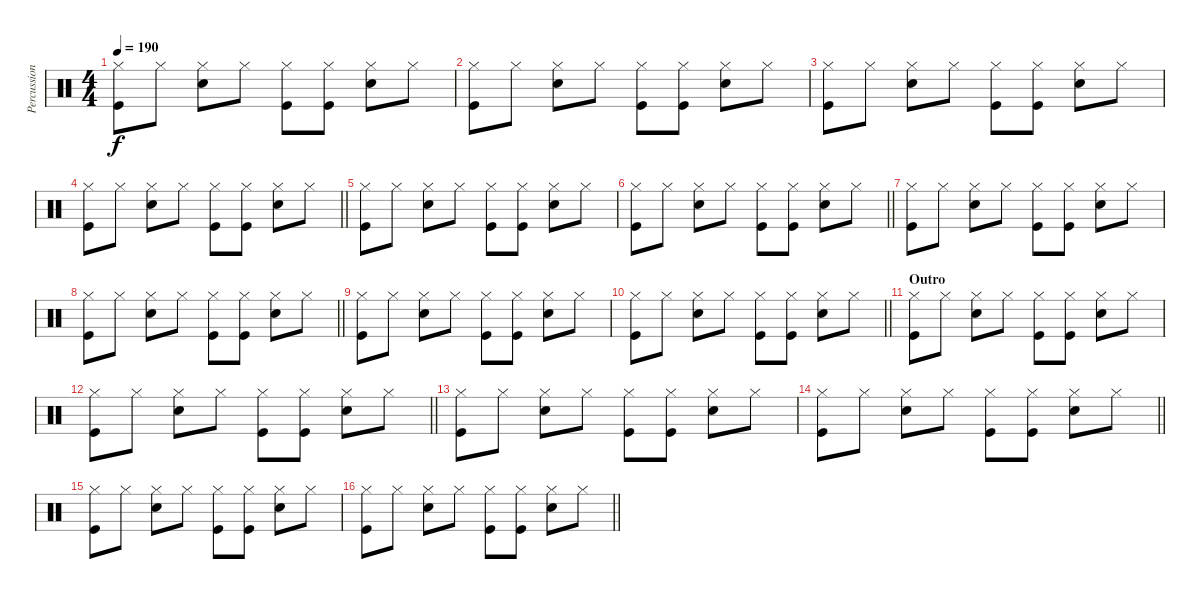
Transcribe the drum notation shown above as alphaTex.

\track ("Percussion" "Percussion") {instrument percussion}
\staff {score}
\articulation defaults
\ts (4 4)
\tempo 190
\clef neutral
\ks c
("Hi-Hat (closed)" "Kick (hit)").8{dy f} "Hi-Hat (closed)".8 ("Snare (hit) 2" "Hi-Hat (closed)").8 "Hi-Hat (closed)".8 ("Hi-Hat (closed)" "Kick (hit)").8 ("Hi-Hat (closed)" "Kick (hit)").8 ("Snare (hit) 2" "Hi-Hat (closed)").8 "Hi-Hat (closed)".8 |
("Hi-Hat (closed)" "Kick (hit)").8 "Hi-Hat (closed)".8 ("Snare (hit) 2" "Hi-Hat (closed)").8 "Hi-Hat (closed)".8 ("Hi-Hat (closed)" "Kick (hit)").8 ("Hi-Hat (closed)" "Kick (hit)").8 ("Snare (hit) 2" "Hi-Hat (closed)").8 "Hi-Hat (closed)".8 |
("Hi-Hat (closed)" "Kick (hit)").8 "Hi-Hat (closed)".8 ("Snare (hit) 2" "Hi-Hat (closed)").8 "Hi-Hat (closed)".8 ("Hi-Hat (closed)" "Kick (hit)").8 ("Hi-Hat (closed)" "Kick (hit)").8 ("Snare (hit) 2" "Hi-Hat (closed)").8 "Hi-Hat (closed)".8 |
\barLineRight lightlight
("Hi-Hat (closed)" "Kick (hit)").8 "Hi-Hat (closed)".8 ("Snare (hit) 2" "Hi-Hat (closed)").8 "Hi-Hat (closed)".8 ("Hi-Hat (closed)" "Kick (hit)").8 ("Hi-Hat (closed)" "Kick (hit)").8 ("Snare (hit) 2" "Hi-Hat (closed)").8 "Hi-Hat (closed)".8 |
("Hi-Hat (closed)" "Kick (hit)").8 "Hi-Hat (closed)".8 ("Snare (hit) 2" "Hi-Hat (closed)").8 "Hi-Hat (closed)".8 ("Hi-Hat (closed)" "Kick (hit)").8 ("Hi-Hat (closed)" "Kick (hit)").8 ("Snare (hit) 2" "Hi-Hat (closed)").8 "Hi-Hat (closed)".8 |
\barLineRight lightlight
("Hi-Hat (closed)" "Kick (hit)").8 "Hi-Hat (closed)".8 ("Snare (hit) 2" "Hi-Hat (closed)").8 "Hi-Hat (closed)".8 ("Hi-Hat (closed)" "Kick (hit)").8 ("Hi-Hat (closed)" "Kick (hit)").8 ("Snare (hit) 2" "Hi-Hat (closed)").8 "Hi-Hat (closed)".8 |
("Hi-Hat (closed)" "Kick (hit)").8 "Hi-Hat (closed)".8 ("Snare (hit) 2" "Hi-Hat (closed)").8 "Hi-Hat (closed)".8 ("Hi-Hat (closed)" "Kick (hit)").8 ("Hi-Hat (closed)" "Kick (hit)").8 ("Snare (hit) 2" "Hi-Hat (closed)").8 "Hi-Hat (closed)".8 |
\barLineRight lightlight
("Hi-Hat (closed)" "Kick (hit)").8 "Hi-Hat (closed)".8 ("Snare (hit) 2" "Hi-Hat (closed)").8 "Hi-Hat (closed)".8 ("Hi-Hat (closed)" "Kick (hit)").8 ("Hi-Hat (closed)" "Kick (hit)").8 ("Snare (hit) 2" "Hi-Hat (closed)").8 "Hi-Hat (closed)".8 |
("Hi-Hat (closed)" "Kick (hit)").8 "Hi-Hat (closed)".8 ("Snare (hit) 2" "Hi-Hat (closed)").8 "Hi-Hat (closed)".8 ("Hi-Hat (closed)" "Kick (hit)").8 ("Hi-Hat (closed)" "Kick (hit)").8 ("Snare (hit) 2" "Hi-Hat (closed)").8 "Hi-Hat (closed)".8 |
\barLineRight lightlight
("Hi-Hat (closed)" "Kick (hit)").8 "Hi-Hat (closed)".8 ("Snare (hit) 2" "Hi-Hat (closed)").8 "Hi-Hat (closed)".8 ("Hi-Hat (closed)" "Kick (hit)").8 ("Hi-Hat (closed)" "Kick (hit)").8 ("Snare (hit) 2" "Hi-Hat (closed)").8 "Hi-Hat (closed)".8 |
\section ("" "Outro")
("Hi-Hat (closed)" "Kick (hit)").8 "Hi-Hat (closed)".8 ("Snare (hit) 2" "Hi-Hat (closed)").8 "Hi-Hat (closed)".8 ("Hi-Hat (closed)" "Kick (hit)").8 ("Hi-Hat (closed)" "Kick (hit)").8 ("Snare (hit) 2" "Hi-Hat (closed)").8 "Hi-Hat (closed)".8 |
\barLineRight lightlight
("Hi-Hat (closed)" "Kick (hit)").8 "Hi-Hat (closed)".8 ("Snare (hit) 2" "Hi-Hat (closed)").8 "Hi-Hat (closed)".8 ("Hi-Hat (closed)" "Kick (hit)").8 ("Hi-Hat (closed)" "Kick (hit)").8 ("Snare (hit) 2" "Hi-Hat (closed)").8 "Hi-Hat (closed)".8 |
("Hi-Hat (closed)" "Kick (hit)").8 "Hi-Hat (closed)".8 ("Snare (hit) 2" "Hi-Hat (closed)").8 "Hi-Hat (closed)".8 ("Hi-Hat (closed)" "Kick (hit)").8 ("Hi-Hat (closed)" "Kick (hit)").8 ("Snare (hit) 2" "Hi-Hat (closed)").8 "Hi-Hat (closed)".8 |
\barLineRight lightlight
("Hi-Hat (closed)" "Kick (hit)").8 "Hi-Hat (closed)".8 ("Snare (hit) 2" "Hi-Hat (closed)").8 "Hi-Hat (closed)".8 ("Hi-Hat (closed)" "Kick (hit)").8 ("Hi-Hat (closed)" "Kick (hit)").8 ("Snare (hit) 2" "Hi-Hat (closed)").8 "Hi-Hat (closed)".8 |
("Hi-Hat (closed)" "Kick (hit)").8 "Hi-Hat (closed)".8 ("Snare (hit) 2" "Hi-Hat (closed)").8 "Hi-Hat (closed)".8 ("Hi-Hat (closed)" "Kick (hit)").8 ("Hi-Hat (closed)" "Kick (hit)").8 ("Snare (hit) 2" "Hi-Hat (closed)").8 "Hi-Hat (closed)".8 |
\barLineRight lightlight
("Hi-Hat (closed)" "Kick (hit)").8 "Hi-Hat (closed)".8 ("Snare (hit) 2" "Hi-Hat (closed)").8 "Hi-Hat (closed)".8 ("Hi-Hat (closed)" "Kick (hit)").8 ("Hi-Hat (closed)" "Kick (hit)").8 ("Snare (hit) 2" "Hi-Hat (closed)").8 "Hi-Hat (closed)".8
